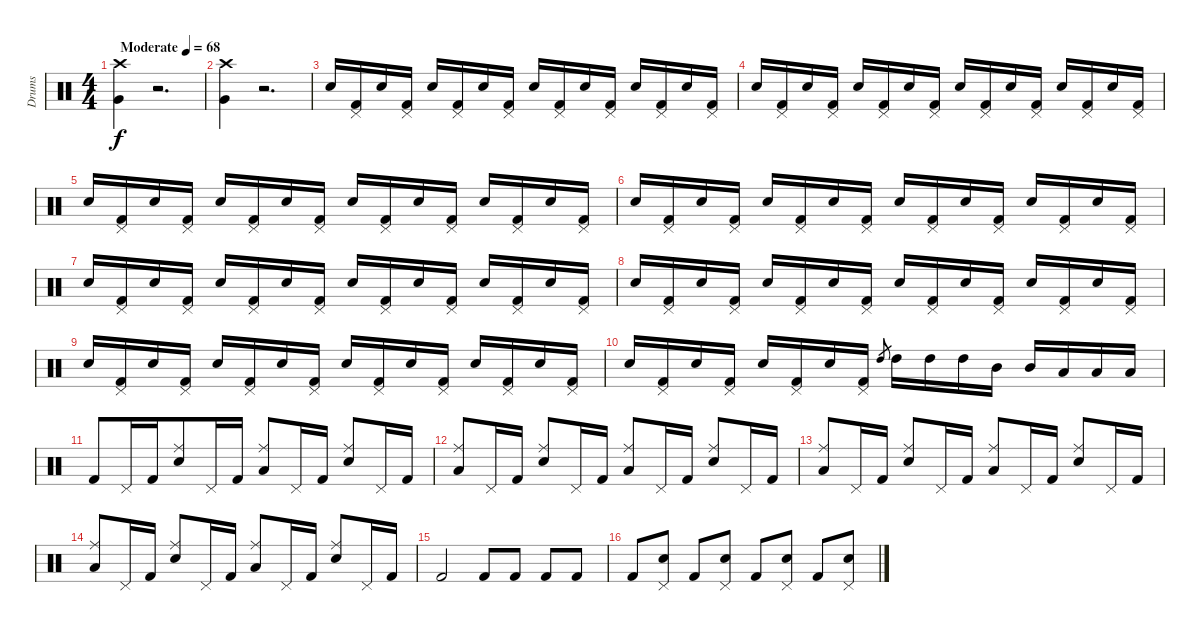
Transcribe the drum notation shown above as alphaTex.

\track ("Drums" "Drums") {instrument percussion}
\staff {score}
\articulation defaults
\ts (4 4)
\tempo (68 "Moderate")
\clef neutral
\ks c
("Very Low Tom (hit)" "Crash high (hit)").4{dy f} r.2{d} |
("Very Low Tom (hit)" "Crash high (hit)").4 r.2{d} |
"Snare (hit) 2".16 ("Pedal Hi-Hat (hit)" "Kick (hit) 2").16 "Snare (hit) 2".16 ("Pedal Hi-Hat (hit)" "Kick (hit) 2").16 "Snare (hit) 2".16 ("Pedal Hi-Hat (hit)" "Kick (hit) 2").16 "Snare (hit) 2".16 ("Pedal Hi-Hat (hit)" "Kick (hit) 2").16 "Snare (hit) 2".16 ("Pedal Hi-Hat (hit)" "Kick (hit) 2").16 "Snare (hit) 2".16 ("Pedal Hi-Hat (hit)" "Kick (hit) 2").16 "Snare (hit) 2".16 ("Pedal Hi-Hat (hit)" "Kick (hit) 2").16 "Snare (hit) 2".16 ("Pedal Hi-Hat (hit)" "Kick (hit) 2").16 |
"Snare (hit) 2".16 ("Pedal Hi-Hat (hit)" "Kick (hit) 2").16 "Snare (hit) 2".16 ("Pedal Hi-Hat (hit)" "Kick (hit) 2").16 "Snare (hit) 2".16 ("Pedal Hi-Hat (hit)" "Kick (hit) 2").16 "Snare (hit) 2".16 ("Pedal Hi-Hat (hit)" "Kick (hit) 2").16 "Snare (hit) 2".16 ("Pedal Hi-Hat (hit)" "Kick (hit) 2").16 "Snare (hit) 2".16 ("Pedal Hi-Hat (hit)" "Kick (hit) 2").16 "Snare (hit) 2".16 ("Pedal Hi-Hat (hit)" "Kick (hit) 2").16 "Snare (hit) 2".16 ("Pedal Hi-Hat (hit)" "Kick (hit) 2").16 |
"Snare (hit) 2".16 ("Pedal Hi-Hat (hit)" "Kick (hit) 2").16 "Snare (hit) 2".16 ("Pedal Hi-Hat (hit)" "Kick (hit) 2").16 "Snare (hit) 2".16 ("Pedal Hi-Hat (hit)" "Kick (hit) 2").16 "Snare (hit) 2".16 ("Pedal Hi-Hat (hit)" "Kick (hit) 2").16 "Snare (hit) 2".16 ("Pedal Hi-Hat (hit)" "Kick (hit) 2").16 "Snare (hit) 2".16 ("Pedal Hi-Hat (hit)" "Kick (hit) 2").16 "Snare (hit) 2".16 ("Pedal Hi-Hat (hit)" "Kick (hit) 2").16 "Snare (hit) 2".16 ("Pedal Hi-Hat (hit)" "Kick (hit) 2").16 |
"Snare (hit) 2".16 ("Pedal Hi-Hat (hit)" "Kick (hit) 2").16 "Snare (hit) 2".16 ("Pedal Hi-Hat (hit)" "Kick (hit) 2").16 "Snare (hit) 2".16 ("Pedal Hi-Hat (hit)" "Kick (hit) 2").16 "Snare (hit) 2".16 ("Pedal Hi-Hat (hit)" "Kick (hit) 2").16 "Snare (hit) 2".16 ("Pedal Hi-Hat (hit)" "Kick (hit) 2").16 "Snare (hit) 2".16 ("Pedal Hi-Hat (hit)" "Kick (hit) 2").16 "Snare (hit) 2".16 ("Pedal Hi-Hat (hit)" "Kick (hit) 2").16 "Snare (hit) 2".16 ("Pedal Hi-Hat (hit)" "Kick (hit) 2").16 |
"Snare (hit) 2".16 ("Pedal Hi-Hat (hit)" "Kick (hit) 2").16 "Snare (hit) 2".16 ("Pedal Hi-Hat (hit)" "Kick (hit) 2").16 "Snare (hit) 2".16 ("Pedal Hi-Hat (hit)" "Kick (hit) 2").16 "Snare (hit) 2".16 ("Pedal Hi-Hat (hit)" "Kick (hit) 2").16 "Snare (hit) 2".16 ("Pedal Hi-Hat (hit)" "Kick (hit) 2").16 "Snare (hit) 2".16 ("Pedal Hi-Hat (hit)" "Kick (hit) 2").16 "Snare (hit) 2".16 ("Pedal Hi-Hat (hit)" "Kick (hit) 2").16 "Snare (hit) 2".16 ("Pedal Hi-Hat (hit)" "Kick (hit) 2").16 |
"Snare (hit) 2".16 ("Pedal Hi-Hat (hit)" "Kick (hit) 2").16 "Snare (hit) 2".16 ("Pedal Hi-Hat (hit)" "Kick (hit) 2").16 "Snare (hit) 2".16 ("Pedal Hi-Hat (hit)" "Kick (hit) 2").16 "Snare (hit) 2".16 ("Pedal Hi-Hat (hit)" "Kick (hit) 2").16 "Snare (hit) 2".16 ("Pedal Hi-Hat (hit)" "Kick (hit) 2").16 "Snare (hit) 2".16 ("Pedal Hi-Hat (hit)" "Kick (hit) 2").16 "Snare (hit) 2".16 ("Pedal Hi-Hat (hit)" "Kick (hit) 2").16 "Snare (hit) 2".16 ("Pedal Hi-Hat (hit)" "Kick (hit) 2").16 |
"Snare (hit) 2".16 ("Pedal Hi-Hat (hit)" "Kick (hit) 2").16 "Snare (hit) 2".16 ("Pedal Hi-Hat (hit)" "Kick (hit) 2").16 "Snare (hit) 2".16 ("Pedal Hi-Hat (hit)" "Kick (hit) 2").16 "Snare (hit) 2".16 ("Pedal Hi-Hat (hit)" "Kick (hit) 2").16 "Snare (hit) 2".16 ("Pedal Hi-Hat (hit)" "Kick (hit) 2").16 "Snare (hit) 2".16 ("Pedal Hi-Hat (hit)" "Kick (hit) 2").16 "Snare (hit) 2".16 ("Pedal Hi-Hat (hit)" "Kick (hit) 2").16 "Snare (hit) 2".16 ("Pedal Hi-Hat (hit)" "Kick (hit) 2").16 |
"Snare (hit) 2".16 ("Pedal Hi-Hat (hit)" "Kick (hit) 2").16 "Snare (hit) 2".16 ("Pedal Hi-Hat (hit)" "Kick (hit) 2").16 "Snare (hit) 2".16 ("Pedal Hi-Hat (hit)" "Kick (hit) 2").16 "Snare (hit) 2".16 ("Pedal Hi-Hat (hit)" "Kick (hit) 2").16 "High Tom (hit)".8{gr} "High Tom (hit)".16 "High Tom (hit)".16 "High Tom (hit)".16 "Mid Tom (hit)".16 "Mid Tom (hit)".16 "Low Tom (hit)".16 "Low Tom (hit)".16 "Low Tom (hit)".16 |
"Kick (hit) 2".8 "Pedal Hi-Hat (hit)".16{beam merge} "Kick (hit) 2".16{beam merge} ("Electric Snare (hit)" "Ride (middle)").8 "Pedal Hi-Hat (hit)".16 "Kick (hit) 2".16 ("Low Tom (hit)" "Ride (middle)").8 "Pedal Hi-Hat (hit)".16 "Kick (hit) 2".16 ("Electric Snare (hit)" "Ride (middle)").8 "Pedal Hi-Hat (hit)".16{beam merge} "Kick (hit) 2".16 |
("Low Tom (hit)" "Ride (middle)").8 "Pedal Hi-Hat (hit)".16 "Kick (hit) 2".16 ("Electric Snare (hit)" "Ride (middle)").8 "Pedal Hi-Hat (hit)".16{beam merge} "Kick (hit) 2".16 ("Low Tom (hit)" "Ride (middle)").8 "Pedal Hi-Hat (hit)".16 "Kick (hit) 2".16 ("Electric Snare (hit)" "Ride (middle)").8 "Pedal Hi-Hat (hit)".16{beam merge} "Kick (hit) 2".16 |
("Low Tom (hit)" "Ride (middle)").8 "Pedal Hi-Hat (hit)".16 "Kick (hit) 2".16 ("Electric Snare (hit)" "Ride (middle)").8 "Pedal Hi-Hat (hit)".16{beam merge} "Kick (hit) 2".16 ("Low Tom (hit)" "Ride (middle)").8 "Pedal Hi-Hat (hit)".16 "Kick (hit) 2".16 ("Electric Snare (hit)" "Ride (middle)").8 "Pedal Hi-Hat (hit)".16{beam merge} "Kick (hit) 2".16 |
("Low Tom (hit)" "Ride (middle)").8 "Pedal Hi-Hat (hit)".16 "Kick (hit) 2".16 ("Electric Snare (hit)" "Ride (middle)").8 "Pedal Hi-Hat (hit)".16{beam merge} "Kick (hit) 2".16 ("Low Tom (hit)" "Ride (middle)").8 "Pedal Hi-Hat (hit)".16 "Kick (hit) 2".16 ("Electric Snare (hit)" "Ride (middle)").8 "Pedal Hi-Hat (hit)".16{beam merge} "Kick (hit) 2".16 |
"Kick (hit) 2".2 "Kick (hit) 2".8 "Kick (hit) 2".8 "Kick (hit) 2".8 "Kick (hit) 2".8 |
"Kick (hit) 2".8 ("Snare (hit) 2" "Pedal Hi-Hat (hit)").8 "Kick (hit) 2".8 ("Snare (hit) 2" "Pedal Hi-Hat (hit)").8 "Kick (hit) 2".8 ("Snare (hit) 2" "Pedal Hi-Hat (hit)").8 "Kick (hit) 2".8 ("Snare (hit) 2" "Pedal Hi-Hat (hit)").8
